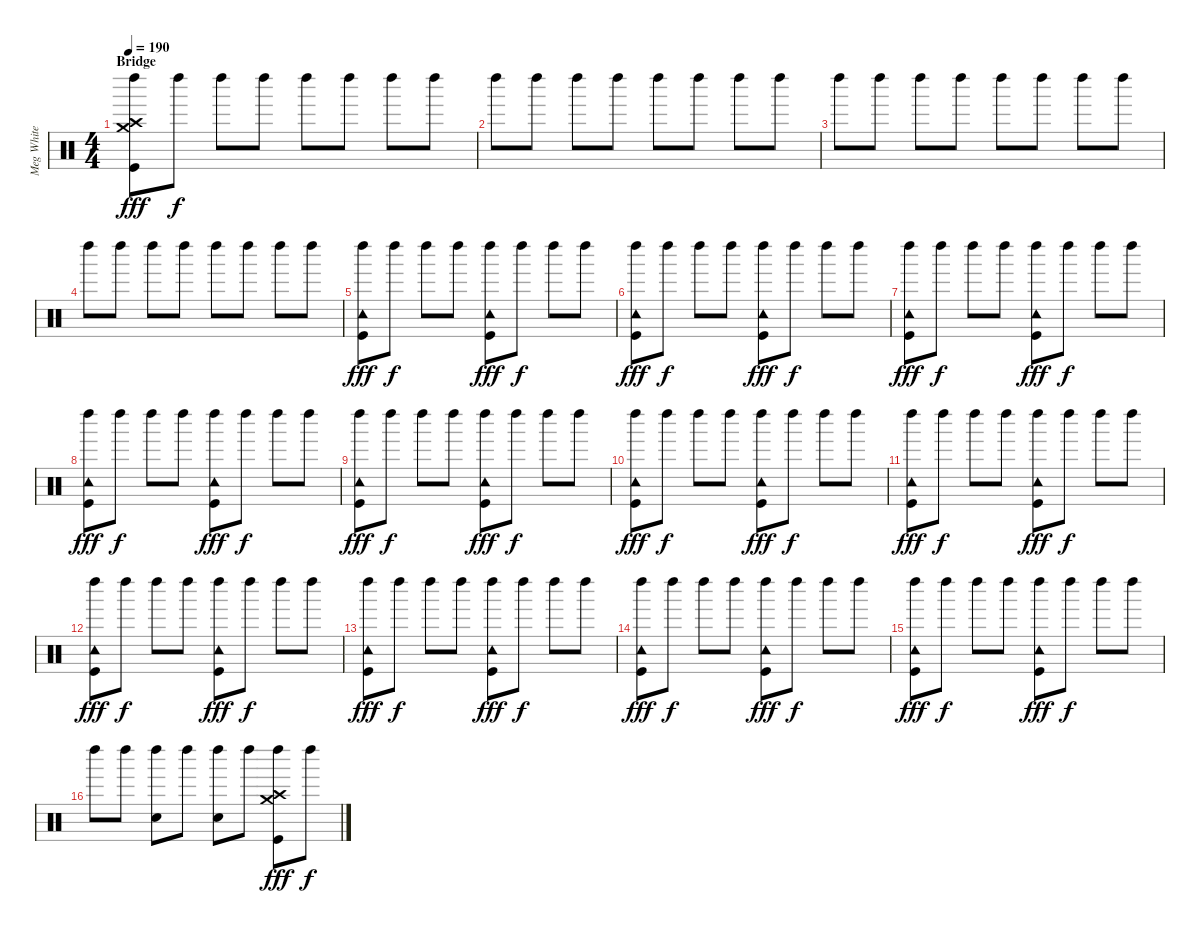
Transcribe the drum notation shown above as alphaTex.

\track ("Meg White" "Meg White") {instrument percussion}
\staff {score}
\articulation defaults
\ts (4 4)
\section ("" "Bridge")
\tempo 190
\clef neutral
\ks c
("Crash high (hit)" "Crash medium (hit)" "Kick (hit)" "Left Maraca (hit)").8{dy fff} "Left Maraca (hit)".8{dy f} "Left Maraca (hit)".8 "Left Maraca (hit)".8 "Left Maraca (hit)".8 "Left Maraca (hit)".8 "Left Maraca (hit)".8 "Left Maraca (hit)".8 |
"Left Maraca (hit)".8 "Left Maraca (hit)".8 "Left Maraca (hit)".8 "Left Maraca (hit)".8 "Left Maraca (hit)".8 "Left Maraca (hit)".8 "Left Maraca (hit)".8 "Left Maraca (hit)".8 |
"Left Maraca (hit)".8 "Left Maraca (hit)".8 "Left Maraca (hit)".8 "Left Maraca (hit)".8 "Left Maraca (hit)".8 "Left Maraca (hit)".8 "Left Maraca (hit)".8 "Left Maraca (hit)".8 |
"Left Maraca (hit)".8 "Left Maraca (hit)".8 "Left Maraca (hit)".8 "Left Maraca (hit)".8 "Left Maraca (hit)".8 "Left Maraca (hit)".8 "Left Maraca (hit)".8 "Left Maraca (hit)".8 |
("Tambourine (hit)" "Kick (hit)" "Left Maraca (hit)").8{dy fff} "Left Maraca (hit)".8{dy f} "Left Maraca (hit)".8 "Left Maraca (hit)".8 ("Tambourine (hit)" "Kick (hit)" "Left Maraca (hit)").8{dy fff} "Left Maraca (hit)".8{dy f} "Left Maraca (hit)".8 "Left Maraca (hit)".8 |
("Tambourine (hit)" "Kick (hit)" "Left Maraca (hit)").8{dy fff} "Left Maraca (hit)".8{dy f} "Left Maraca (hit)".8 "Left Maraca (hit)".8 ("Tambourine (hit)" "Kick (hit)" "Left Maraca (hit)").8{dy fff} "Left Maraca (hit)".8{dy f} "Left Maraca (hit)".8 "Left Maraca (hit)".8 |
("Tambourine (hit)" "Kick (hit)" "Left Maraca (hit)").8{dy fff} "Left Maraca (hit)".8{dy f} "Left Maraca (hit)".8 "Left Maraca (hit)".8 ("Tambourine (hit)" "Kick (hit)" "Left Maraca (hit)").8{dy fff} "Left Maraca (hit)".8{dy f} "Left Maraca (hit)".8 "Left Maraca (hit)".8 |
("Tambourine (hit)" "Kick (hit)" "Left Maraca (hit)").8{dy fff} "Left Maraca (hit)".8{dy f} "Left Maraca (hit)".8 "Left Maraca (hit)".8 ("Tambourine (hit)" "Kick (hit)" "Left Maraca (hit)").8{dy fff} "Left Maraca (hit)".8{dy f} "Left Maraca (hit)".8 "Left Maraca (hit)".8 |
("Tambourine (hit)" "Kick (hit)" "Left Maraca (hit)").8{dy fff} "Left Maraca (hit)".8{dy f} "Left Maraca (hit)".8 "Left Maraca (hit)".8 ("Tambourine (hit)" "Kick (hit)" "Left Maraca (hit)").8{dy fff} "Left Maraca (hit)".8{dy f} "Left Maraca (hit)".8 "Left Maraca (hit)".8 |
("Tambourine (hit)" "Kick (hit)" "Left Maraca (hit)").8{dy fff} "Left Maraca (hit)".8{dy f} "Left Maraca (hit)".8 "Left Maraca (hit)".8 ("Tambourine (hit)" "Kick (hit)" "Left Maraca (hit)").8{dy fff} "Left Maraca (hit)".8{dy f} "Left Maraca (hit)".8 "Left Maraca (hit)".8 |
("Tambourine (hit)" "Kick (hit)" "Left Maraca (hit)").8{dy fff} "Left Maraca (hit)".8{dy f} "Left Maraca (hit)".8 "Left Maraca (hit)".8 ("Tambourine (hit)" "Kick (hit)" "Left Maraca (hit)").8{dy fff} "Left Maraca (hit)".8{dy f} "Left Maraca (hit)".8 "Left Maraca (hit)".8 |
("Tambourine (hit)" "Kick (hit)" "Left Maraca (hit)").8{dy fff} "Left Maraca (hit)".8{dy f} "Left Maraca (hit)".8 "Left Maraca (hit)".8 ("Tambourine (hit)" "Kick (hit)" "Left Maraca (hit)").8{dy fff} "Left Maraca (hit)".8{dy f} "Left Maraca (hit)".8 "Left Maraca (hit)".8 |
("Tambourine (hit)" "Kick (hit)" "Left Maraca (hit)").8{dy fff} "Left Maraca (hit)".8{dy f} "Left Maraca (hit)".8 "Left Maraca (hit)".8 ("Tambourine (hit)" "Kick (hit)" "Left Maraca (hit)").8{dy fff} "Left Maraca (hit)".8{dy f} "Left Maraca (hit)".8 "Left Maraca (hit)".8 |
("Tambourine (hit)" "Kick (hit)" "Left Maraca (hit)").8{dy fff} "Left Maraca (hit)".8{dy f} "Left Maraca (hit)".8 "Left Maraca (hit)".8 ("Tambourine (hit)" "Kick (hit)" "Left Maraca (hit)").8{dy fff} "Left Maraca (hit)".8{dy f} "Left Maraca (hit)".8 "Left Maraca (hit)".8 |
("Tambourine (hit)" "Kick (hit)" "Left Maraca (hit)").8{dy fff} "Left Maraca (hit)".8{dy f} "Left Maraca (hit)".8 "Left Maraca (hit)".8 ("Tambourine (hit)" "Kick (hit)" "Left Maraca (hit)").8{dy fff} "Left Maraca (hit)".8{dy f} "Left Maraca (hit)".8 "Left Maraca (hit)".8 |
"Left Maraca (hit)".8 "Left Maraca (hit)".8 ("Snare (hit) 2" "Left Maraca (hit)").8 "Left Maraca (hit)".8 ("Snare (hit) 2" "Left Maraca (hit)").8 "Left Maraca (hit)".8 ("Crash high (hit)" "Crash medium (hit)" "Kick (hit)" "Left Maraca (hit)").8{dy fff} "Left Maraca (hit)".8{dy f}
